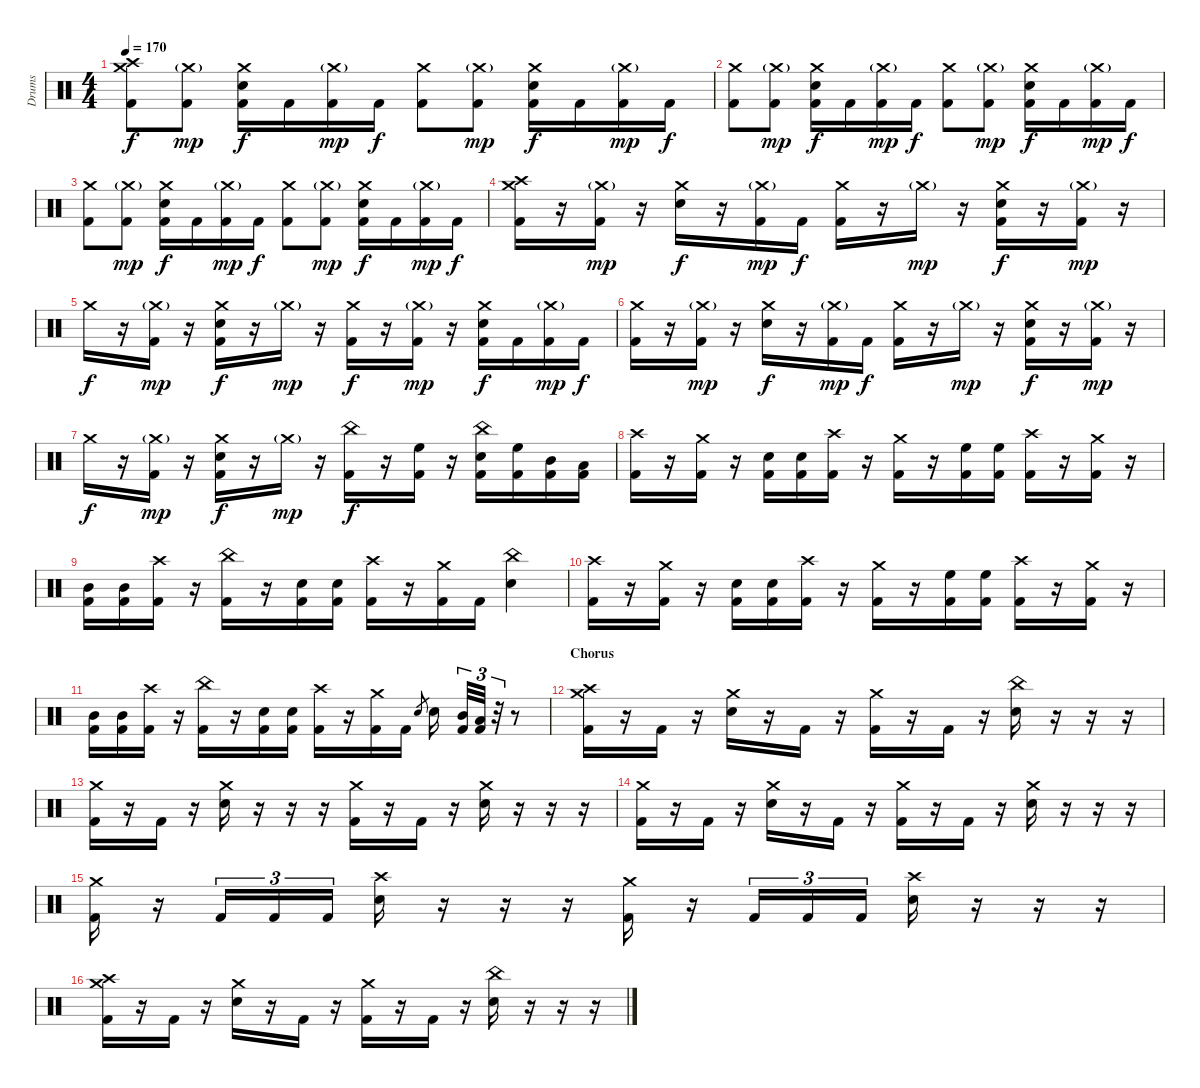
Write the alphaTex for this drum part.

\track ("Drums" "Drums") {instrument percussion}
\staff {score}
\articulation defaults
\ts (4 4)
\tempo 170
\clef neutral
\ks c
("Crash medium (hit)" "Crash high (hit)" "Kick (hit) 2").8{dy f} ("Crash medium (hit)"{g} "Kick (hit) 2").8{dy mp} ("Crash medium (hit)" "Electric Snare (hit)" "Kick (hit) 2").16{dy f} "Kick (hit) 2".16 ("Crash medium (hit)"{g} "Kick (hit) 2").16{dy mp} "Kick (hit) 2".16{dy f} ("Crash medium (hit)" "Kick (hit) 2").8 ("Crash medium (hit)"{g} "Kick (hit) 2").8{dy mp} ("Crash medium (hit)" "Electric Snare (hit)" "Kick (hit) 2").16{dy f} "Kick (hit) 2".16 ("Crash medium (hit)"{g} "Kick (hit) 2").16{dy mp} "Kick (hit) 2".16{dy f} |
("Crash medium (hit)" "Kick (hit) 2").8 ("Crash medium (hit)"{g} "Kick (hit) 2").8{dy mp} ("Crash medium (hit)" "Electric Snare (hit)" "Kick (hit) 2").16{dy f} "Kick (hit) 2".16 ("Crash medium (hit)"{g} "Kick (hit) 2").16{dy mp} "Kick (hit) 2".16{dy f} ("Crash medium (hit)" "Kick (hit) 2").8 ("Crash medium (hit)"{g} "Kick (hit) 2").8{dy mp} ("Crash medium (hit)" "Electric Snare (hit)" "Kick (hit) 2").16{dy f} "Kick (hit) 2".16 ("Crash medium (hit)"{g} "Kick (hit) 2").16{dy mp} "Kick (hit) 2".16{dy f} |
("Crash medium (hit)" "Kick (hit) 2").8 ("Crash medium (hit)"{g} "Kick (hit) 2").8{dy mp} ("Crash medium (hit)" "Electric Snare (hit)" "Kick (hit) 2").16{dy f} "Kick (hit) 2".16 ("Crash medium (hit)"{g} "Kick (hit) 2").16{dy mp} "Kick (hit) 2".16{dy f} ("Crash medium (hit)" "Kick (hit) 2").8 ("Crash medium (hit)"{g} "Kick (hit) 2").8{dy mp} ("Crash medium (hit)" "Electric Snare (hit)" "Kick (hit) 2").16{dy f} "Kick (hit) 2".16 ("Crash medium (hit)"{g} "Kick (hit) 2").16{dy mp} "Kick (hit) 2".16{dy f} |
("Crash medium (hit)" "Crash high (hit)" "Kick (hit) 2").16 r.16 ("Crash medium (hit)"{g} "Kick (hit) 2").16{dy mp} r.16 ("Crash medium (hit)" "Electric Snare (hit)").16{dy f} r.16 ("Crash medium (hit)"{g} "Kick (hit) 2").16{dy mp} "Kick (hit) 2".16{dy f} ("Crash medium (hit)" "Kick (hit) 2").16 r.16 "Crash medium (hit)"{g}.16{dy mp} r.16 ("Crash medium (hit)" "Electric Snare (hit)" "Kick (hit) 2").16{dy f} r.16 ("Crash medium (hit)"{g} "Kick (hit) 2").16{dy mp} r.16 |
"Crash medium (hit)".16{dy f} r.16 ("Crash medium (hit)"{g} "Kick (hit) 2").16{dy mp} r.16 ("Crash medium (hit)" "Electric Snare (hit)" "Kick (hit) 2").16{dy f} r.16 "Crash medium (hit)"{g}.16{dy mp} r.16 ("Crash medium (hit)" "Kick (hit) 2").16{dy f} r.16 ("Crash medium (hit)"{g} "Kick (hit) 2").16{dy mp} r.16 ("Crash medium (hit)" "Electric Snare (hit)" "Kick (hit) 2").16{dy f} "Kick (hit) 2".16 ("Crash medium (hit)"{g} "Kick (hit) 2").16{dy mp} "Kick (hit) 2".16{dy f} |
("Crash medium (hit)" "Kick (hit) 2").16 r.16 ("Crash medium (hit)"{g} "Kick (hit) 2").16{dy mp} r.16 ("Crash medium (hit)" "Electric Snare (hit)").16{dy f} r.16 ("Crash medium (hit)"{g} "Kick (hit) 2").16{dy mp} "Kick (hit) 2".16{dy f} ("Crash medium (hit)" "Kick (hit) 2").16 r.16 "Crash medium (hit)"{g}.16{dy mp} r.16 ("Crash medium (hit)" "Electric Snare (hit)" "Kick (hit) 2").16{dy f} r.16 ("Crash medium (hit)"{g} "Kick (hit) 2").16{dy mp} r.16 |
"Crash medium (hit)".16{dy f} r.16 ("Crash medium (hit)"{g} "Kick (hit) 2").16{dy mp} r.16 ("Crash medium (hit)" "Electric Snare (hit)" "Kick (hit) 2").16{dy f} r.16 "Crash medium (hit)"{g}.16{dy mp} r.16 ("China (hit)" "Kick (hit) 2").16{dy f} r.16 ("High Floor Tom (hit)" "Kick (hit) 2").16 r.16 ("China (hit)" "Electric Snare (hit)" "Kick (hit) 2").16 ("High Floor Tom (hit)" "Kick (hit) 2").16 ("Mid Tom (hit)" "Kick (hit) 2").16 ("Low Tom (hit)" "Kick (hit) 2").16 |
\section ("" "")
("Crash high (hit)" "Kick (hit) 2").16 r.16 ("Crash medium (hit)" "Kick (hit) 2").16 r.16 ("Electric Snare (hit)" "Kick (hit) 2").16 ("Electric Snare (hit)" "Kick (hit) 2").16 ("Crash high (hit)" "Kick (hit) 2").16 r.16 ("Crash medium (hit)" "Kick (hit) 2").16 r.16 ("High Floor Tom (hit)" "Kick (hit) 2").16 ("High Floor Tom (hit)" "Kick (hit) 2").16 ("Crash high (hit)" "Kick (hit) 2").16 r.16 ("Crash medium (hit)" "Kick (hit) 2").16 r.16 |
("Mid Tom (hit)" "Kick (hit) 2").16 ("Mid Tom (hit)" "Kick (hit) 2").16 ("Crash high (hit)" "Kick (hit) 2").16 r.16 ("China (hit)" "Kick (hit) 2").16 r.16 ("Electric Snare (hit)" "Kick (hit) 2").16 ("Electric Snare (hit)" "Kick (hit) 2").16 ("Crash high (hit)" "Kick (hit) 2").16 r.16 ("Crash medium (hit)" "Kick (hit) 2").16 "Kick (hit) 2".16 ("China (hit)" "Electric Snare (hit)").4 |
("Crash high (hit)" "Kick (hit) 2").16 r.16 ("Crash medium (hit)" "Kick (hit) 2").16 r.16 ("Electric Snare (hit)" "Kick (hit) 2").16 ("Electric Snare (hit)" "Kick (hit) 2").16 ("Crash high (hit)" "Kick (hit) 2").16 r.16 ("Crash medium (hit)" "Kick (hit) 2").16 r.16 ("High Floor Tom (hit)" "Kick (hit) 2").16 ("High Floor Tom (hit)" "Kick (hit) 2").16 ("Crash high (hit)" "Kick (hit) 2").16 r.16 ("Crash medium (hit)" "Kick (hit) 2").16 r.16 |
("Mid Tom (hit)" "Kick (hit) 2").16 ("Mid Tom (hit)" "Kick (hit) 2").16 ("Crash high (hit)" "Kick (hit) 2").16 r.16 ("China (hit)" "Kick (hit) 2").16 r.16 ("Electric Snare (hit)" "Kick (hit) 2").16 ("Electric Snare (hit)" "Kick (hit) 2").16 ("Crash high (hit)" "Kick (hit) 2").16 r.16 ("Crash medium (hit)" "Kick (hit) 2").16 "Kick (hit) 2".16 "Electric Snare (hit)".8{gr} "Electric Snare (hit)".16 ("Mid Tom (hit)" "Kick (hit) 2").32{tu (3 2)} ("Low Tom (hit)" "Kick (hit) 2").32{tu (3 2)} r.32{tu (3 2)} r.8 |
\section ("" "Chorus")
("Crash medium (hit)" "Crash high (hit)" "Kick (hit) 2").16 r.16 "Kick (hit) 2".16 r.16 ("Crash medium (hit)" "Electric Snare (hit)").16 r.16 "Kick (hit) 2".16 r.16 ("Crash medium (hit)" "Kick (hit) 2").16 r.16 "Kick (hit) 2".16 r.16 ("China (hit)" "Electric Snare (hit)").16 r.16 r.16 r.16 |
("Crash medium (hit)" "Kick (hit) 2").16 r.16 "Kick (hit) 2".16 r.16 ("Crash medium (hit)" "Electric Snare (hit)").16 r.16 r.16 r.16 ("Crash medium (hit)" "Kick (hit) 2").16 r.16 "Kick (hit) 2".16 r.16 ("Crash medium (hit)" "Electric Snare (hit)").16 r.16 r.16 r.16 |
("Crash medium (hit)" "Kick (hit) 2").16 r.16 "Kick (hit) 2".16 r.16 ("Crash medium (hit)" "Electric Snare (hit)").16 r.16 "Kick (hit) 2".16 r.16 ("Crash medium (hit)" "Kick (hit) 2").16 r.16 "Kick (hit) 2".16 r.16 ("Crash medium (hit)" "Electric Snare (hit)").16 r.16 r.16 r.16 |
("Crash medium (hit)" "Kick (hit) 2").16 r.16 "Kick (hit) 2".16{tu (3 2)} "Kick (hit) 2".16{tu (3 2)} "Kick (hit) 2".16{tu (3 2)} ("Crash high (hit)" "Electric Snare (hit)").16 r.16 r.16 r.16 ("Crash medium (hit)" "Kick (hit) 2").16 r.16 "Kick (hit) 2".16{tu (3 2)} "Kick (hit) 2".16{tu (3 2)} "Kick (hit) 2".16{tu (3 2)} ("Crash high (hit)" "Electric Snare (hit)").16 r.16 r.16 r.16 |
("Crash medium (hit)" "Crash high (hit)" "Kick (hit) 2").16 r.16 "Kick (hit) 2".16 r.16 ("Crash medium (hit)" "Electric Snare (hit)").16 r.16 "Kick (hit) 2".16 r.16 ("Crash medium (hit)" "Kick (hit) 2").16 r.16 "Kick (hit) 2".16 r.16 ("China (hit)" "Electric Snare (hit)").16 r.16 r.16 r.16
